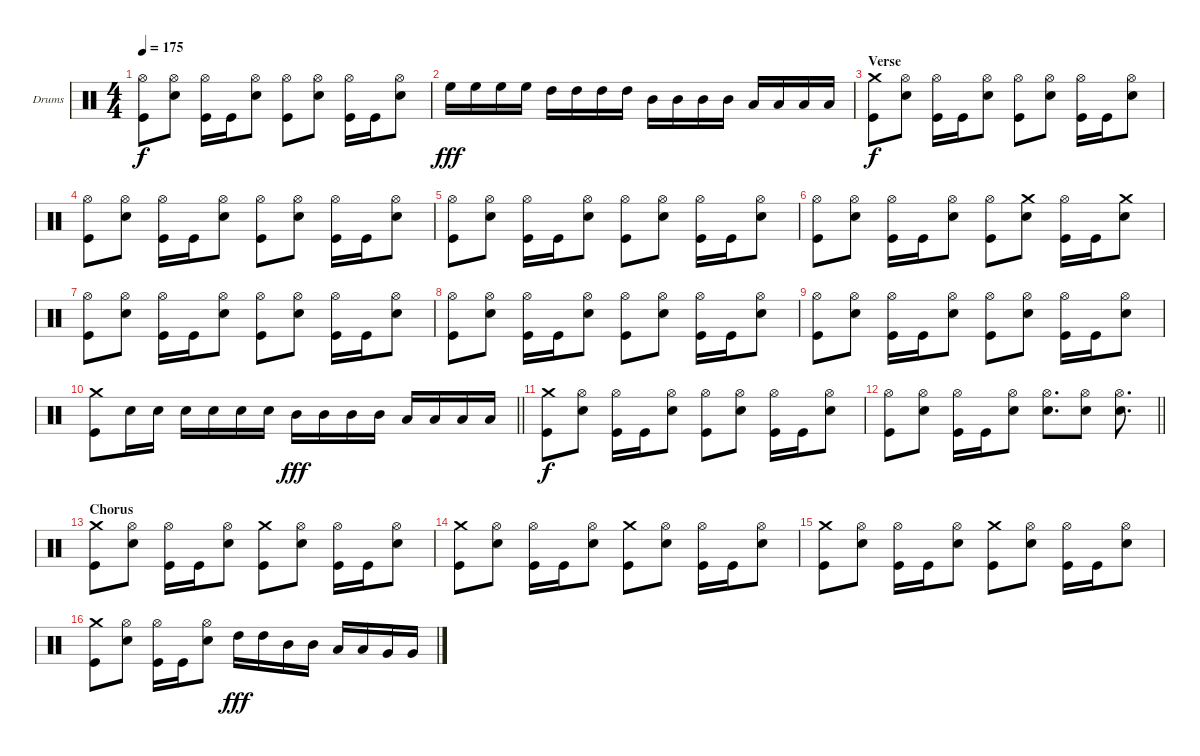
\bracketExtendMode groupsimilarinstruments
\firstSystemTrackNameOrientation horizontal
\otherSystemsTrackNameOrientation horizontal
\track ("Drums" "Drums") {instrument percussion}
\staff {score}
\articulation defaults
\ts (4 4)
\tempo 175
\clef neutral
\ks c
("Hi-Hat (open)" "Kick (hit)").8{dy f} ("Hi-Hat (open)" "Snare (hit) 2").8 ("Hi-Hat (open)" "Kick (hit)").16 "Kick (hit)".16 ("Hi-Hat (open)" "Snare (hit) 2").8 ("Hi-Hat (open)" "Kick (hit)").8 ("Hi-Hat (open)" "Snare (hit) 2").8 ("Hi-Hat (open)" "Kick (hit)").16 "Kick (hit)".16 ("Hi-Hat (open)" "Snare (hit) 2").8 |
"High Floor Tom (hit)".16{dy fff} "High Floor Tom (hit)".16 "High Floor Tom (hit)".16 "High Floor Tom (hit)".16 "High Tom (hit)".16 "High Tom (hit)".16 "High Tom (hit)".16 "High Tom (hit)".16 "Mid Tom (hit)".16 "Mid Tom (hit)".16 "Mid Tom (hit)".16 "Mid Tom (hit)".16 "Low Tom (hit)".16 "Low Tom (hit)".16 "Low Tom (hit)".16 "Low Tom (hit)".16 |
\section ("" "Verse")
("Crash medium (hit)" "Kick (hit)").8{dy f} ("Hi-Hat (open)" "Snare (hit) 2").8 ("Hi-Hat (open)" "Kick (hit)").16 "Kick (hit)".16 ("Hi-Hat (open)" "Snare (hit) 2").8 ("Hi-Hat (open)" "Kick (hit)").8 ("Hi-Hat (open)" "Snare (hit) 2").8 ("Hi-Hat (open)" "Kick (hit)").16 "Kick (hit)".16 ("Hi-Hat (open)" "Snare (hit) 2").8 |
("Hi-Hat (open)" "Kick (hit)").8 ("Hi-Hat (open)" "Snare (hit) 2").8 ("Hi-Hat (open)" "Kick (hit)").16 "Kick (hit)".16 ("Hi-Hat (open)" "Snare (hit) 2").8 ("Hi-Hat (open)" "Kick (hit)").8 ("Hi-Hat (open)" "Snare (hit) 2").8 ("Hi-Hat (open)" "Kick (hit)").16 "Kick (hit)".16 ("Hi-Hat (open)" "Snare (hit) 2").8 |
("Hi-Hat (open)" "Kick (hit)").8 ("Hi-Hat (open)" "Snare (hit) 2").8 ("Hi-Hat (open)" "Kick (hit)").16 "Kick (hit)".16 ("Hi-Hat (open)" "Snare (hit) 2").8 ("Hi-Hat (open)" "Kick (hit)").8 ("Hi-Hat (open)" "Snare (hit) 2").8 ("Hi-Hat (open)" "Kick (hit)").16 "Kick (hit)".16 ("Hi-Hat (open)" "Snare (hit) 2").8 |
("Hi-Hat (open)" "Kick (hit)").8 ("Hi-Hat (open)" "Snare (hit) 2").8 ("Hi-Hat (open)" "Kick (hit)").16 "Kick (hit)".16 ("Hi-Hat (open)" "Snare (hit) 2").8 ("Hi-Hat (open)" "Kick (hit)").8 ("Snare (hit) 2" "Crash medium (hit)").8 ("Hi-Hat (open)" "Kick (hit)").16 "Kick (hit)".16 ("Snare (hit) 2" "Crash medium (hit)").8 |
("Kick (hit)" "Hi-Hat (open)").8 ("Hi-Hat (open)" "Snare (hit) 2").8 ("Hi-Hat (open)" "Kick (hit)").16 "Kick (hit)".16 ("Hi-Hat (open)" "Snare (hit) 2").8 ("Hi-Hat (open)" "Kick (hit)").8 ("Hi-Hat (open)" "Snare (hit) 2").8 ("Hi-Hat (open)" "Kick (hit)").16 "Kick (hit)".16 ("Hi-Hat (open)" "Snare (hit) 2").8 |
("Hi-Hat (open)" "Kick (hit)").8 ("Hi-Hat (open)" "Snare (hit) 2").8 ("Hi-Hat (open)" "Kick (hit)").16 "Kick (hit)".16 ("Hi-Hat (open)" "Snare (hit) 2").8 ("Hi-Hat (open)" "Kick (hit)").8 ("Hi-Hat (open)" "Snare (hit) 2").8 ("Hi-Hat (open)" "Kick (hit)").16 "Kick (hit)".16 ("Hi-Hat (open)" "Snare (hit) 2").8 |
("Hi-Hat (open)" "Kick (hit)").8 ("Hi-Hat (open)" "Snare (hit) 2").8 ("Hi-Hat (open)" "Kick (hit)").16 "Kick (hit)".16 ("Hi-Hat (open)" "Snare (hit) 2").8 ("Hi-Hat (open)" "Kick (hit)").8 ("Hi-Hat (open)" "Snare (hit) 2").8 ("Hi-Hat (open)" "Kick (hit)").16 "Kick (hit)".16 ("Hi-Hat (open)" "Snare (hit) 2").8 |
\barLineRight lightlight
("Crash medium (hit)" "Kick (hit)").8 "Snare (hit) 2".16 "Snare (hit) 2".16 "Snare (hit) 2".16 "Snare (hit) 2".16 "Snare (hit) 2".16 "Snare (hit) 2".16 "Mid Tom (hit)".16{dy fff} "Mid Tom (hit)".16 "Mid Tom (hit)".16 "Mid Tom (hit)".16 "Low Tom (hit)".16 "Low Tom (hit)".16 "Low Tom (hit)".16 "Low Tom (hit)".16 |
("Crash medium (hit)" "Kick (hit)").8{dy f} ("Hi-Hat (open)" "Snare (hit) 2").8 ("Hi-Hat (open)" "Kick (hit)").16 "Kick (hit)".16 ("Hi-Hat (open)" "Snare (hit) 2").8 ("Hi-Hat (open)" "Kick (hit)").8 ("Hi-Hat (open)" "Snare (hit) 2").8 ("Hi-Hat (open)" "Kick (hit)").16 "Kick (hit)".16 ("Hi-Hat (open)" "Snare (hit) 2").8 |
\barLineRight lightlight
("Hi-Hat (open)" "Kick (hit)").8 ("Hi-Hat (open)" "Snare (hit) 2").8 ("Hi-Hat (open)" "Kick (hit)").16 "Kick (hit)".16 ("Hi-Hat (open)" "Snare (hit) 2").8 ("Snare (hit) 2" "Hi-Hat (open)").8{d} ("Hi-Hat (open)" "Snare (hit) 2").8 ("Hi-Hat (open)" "Snare (hit) 2").8{d} |
\section ("" "Chorus")
("Crash medium (hit)" "Kick (hit)").8 ("Hi-Hat (open)" "Snare (hit) 2").8 ("Hi-Hat (open)" "Kick (hit)").16 "Kick (hit)".16 ("Hi-Hat (open)" "Snare (hit) 2").8 ("Kick (hit)" "Crash medium (hit)").8 ("Hi-Hat (open)" "Snare (hit) 2").8 ("Hi-Hat (open)" "Kick (hit)").16 "Kick (hit)".16 ("Hi-Hat (open)" "Snare (hit) 2").8 |
("Crash medium (hit)" "Kick (hit)").8 ("Hi-Hat (open)" "Snare (hit) 2").8 ("Hi-Hat (open)" "Kick (hit)").16 "Kick (hit)".16 ("Hi-Hat (open)" "Snare (hit) 2").8 ("Kick (hit)" "Crash medium (hit)").8 ("Hi-Hat (open)" "Snare (hit) 2").8 ("Hi-Hat (open)" "Kick (hit)").16 "Kick (hit)".16 ("Hi-Hat (open)" "Snare (hit) 2").8 |
("Crash medium (hit)" "Kick (hit)").8 ("Hi-Hat (open)" "Snare (hit) 2").8 ("Hi-Hat (open)" "Kick (hit)").16 "Kick (hit)".16 ("Hi-Hat (open)" "Snare (hit) 2").8 ("Kick (hit)" "Crash medium (hit)").8 ("Hi-Hat (open)" "Snare (hit) 2").8 ("Hi-Hat (open)" "Kick (hit)").16 "Kick (hit)".16 ("Hi-Hat (open)" "Snare (hit) 2").8 |
("Crash medium (hit)" "Kick (hit)").8 ("Hi-Hat (open)" "Snare (hit) 2").8 ("Hi-Hat (open)" "Kick (hit)").16 "Kick (hit)".16 ("Hi-Hat (open)" "Snare (hit) 2").8 "High Tom (hit)".16{dy fff} "High Tom (hit)".16 "Mid Tom (hit)".16 "Mid Tom (hit)".16 "Low Tom (hit)".16 "Low Tom (hit)".16 "Very Low Tom (hit)".16 "Very Low Tom (hit)".16
